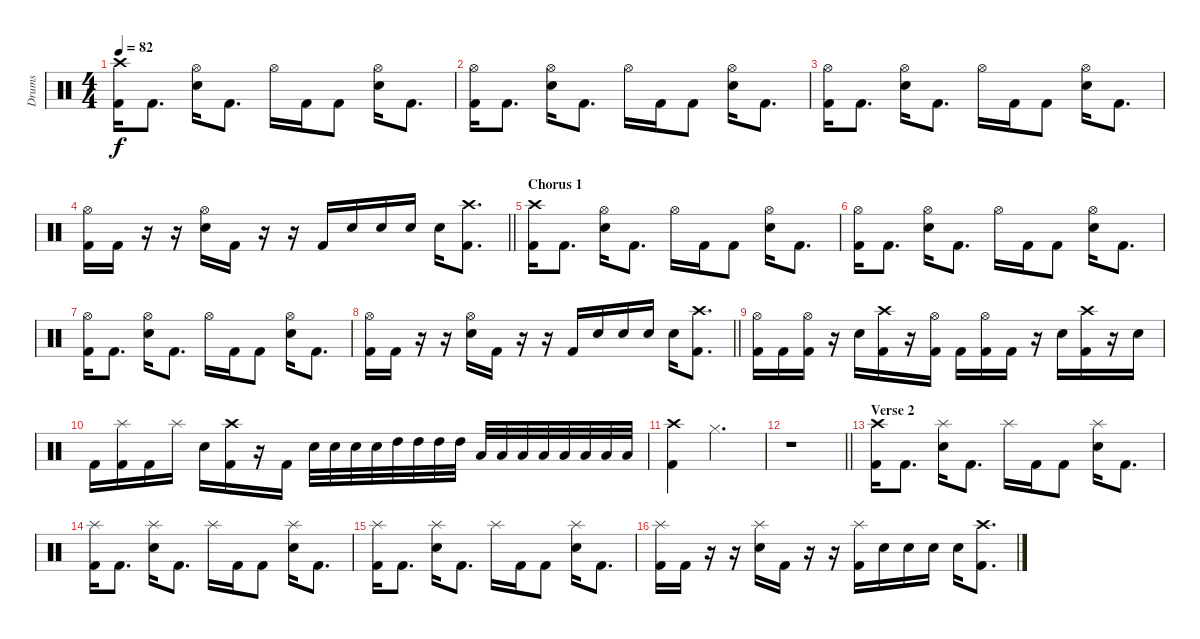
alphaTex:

\track ("Drums" "Drums") {instrument percussion}
\staff {score}
\articulation defaults
\ts (4 4)
\tempo 82
\clef neutral
\ks c
("Crash high (hit)" "Kick (hit) 2").16{dy f} "Kick (hit) 2".8{d} ("Hi-Hat (open)" "Electric Snare (hit)").16 "Kick (hit) 2".8{d} "Hi-Hat (open)".16 "Kick (hit) 2".16 "Kick (hit) 2".8 ("Hi-Hat (open)" "Electric Snare (hit)").16 "Kick (hit) 2".8{d} |
("Hi-Hat (open)" "Kick (hit) 2").16 "Kick (hit) 2".8{d} ("Hi-Hat (open)" "Electric Snare (hit)").16 "Kick (hit) 2".8{d} "Hi-Hat (open)".16 "Kick (hit) 2".16 "Kick (hit) 2".8 ("Hi-Hat (open)" "Electric Snare (hit)").16 "Kick (hit) 2".8{d} |
("Hi-Hat (open)" "Kick (hit) 2").16 "Kick (hit) 2".8{d} ("Hi-Hat (open)" "Electric Snare (hit)").16 "Kick (hit) 2".8{d} "Hi-Hat (open)".16 "Kick (hit) 2".16 "Kick (hit) 2".8 ("Hi-Hat (open)" "Electric Snare (hit)").16 "Kick (hit) 2".8{d} |
\barLineRight lightlight
("Hi-Hat (open)" "Kick (hit) 2").16 "Kick (hit) 2".16 r.16 r.16 ("Hi-Hat (open)" "Electric Snare (hit)").16 "Kick (hit) 2".16 r.16 r.16 "Kick (hit) 2".16 "Electric Snare (hit)".16 "Electric Snare (hit)".16 "Electric Snare (hit)".16 "Electric Snare (hit)".16 ("Crash high (hit)" "Kick (hit) 2").8{d} |
\section ("" "Chorus 1")
("Crash high (hit)" "Kick (hit) 2").16 "Kick (hit) 2".8{d} ("Hi-Hat (open)" "Electric Snare (hit)").16 "Kick (hit) 2".8{d} "Hi-Hat (open)".16 "Kick (hit) 2".16 "Kick (hit) 2".8 ("Hi-Hat (open)" "Electric Snare (hit)").16 "Kick (hit) 2".8{d} |
("Hi-Hat (open)" "Kick (hit) 2").16 "Kick (hit) 2".8{d} ("Hi-Hat (open)" "Electric Snare (hit)").16 "Kick (hit) 2".8{d} "Hi-Hat (open)".16 "Kick (hit) 2".16 "Kick (hit) 2".8 ("Hi-Hat (open)" "Electric Snare (hit)").16 "Kick (hit) 2".8{d} |
("Hi-Hat (open)" "Kick (hit) 2").16 "Kick (hit) 2".8{d} ("Hi-Hat (open)" "Electric Snare (hit)").16 "Kick (hit) 2".8{d} "Hi-Hat (open)".16 "Kick (hit) 2".16 "Kick (hit) 2".8 ("Hi-Hat (open)" "Electric Snare (hit)").16 "Kick (hit) 2".8{d} |
\barLineRight lightlight
("Hi-Hat (open)" "Kick (hit) 2").16 "Kick (hit) 2".16 r.16 r.16 ("Hi-Hat (open)" "Electric Snare (hit)").16 "Kick (hit) 2".16 r.16 r.16 "Kick (hit) 2".16 "Electric Snare (hit)".16 "Electric Snare (hit)".16 "Electric Snare (hit)".16 "Electric Snare (hit)".16 ("Crash high (hit)" "Kick (hit) 2").8{d} |
("Hi-Hat (open)" "Kick (hit) 2").16 "Kick (hit) 2".16 ("Hi-Hat (open)" "Kick (hit) 2").16 r.16 "Electric Snare (hit)".16 ("Crash high (hit)" "Kick (hit) 2").16 r.16 ("Hi-Hat (open)" "Kick (hit) 2").16 "Kick (hit) 2".16 ("Hi-Hat (open)" "Kick (hit) 2").16 "Kick (hit) 2".16 r.16 "Electric Snare (hit)".16 ("Crash high (hit)" "Kick (hit) 2").16 r.16 "Electric Snare (hit)".16 |
"Kick (hit) 2".16 ("Splash (hit)" "Kick (hit) 2").16 "Kick (hit) 2".16 "Splash (hit)".16 "Electric Snare (hit)".16 ("Crash high (hit)" "Kick (hit) 2").16 r.16 "Kick (hit) 2".16 "Electric Snare (hit)".32 "Electric Snare (hit)".32 "Electric Snare (hit)".32 "Electric Snare (hit)".32 "High Tom (hit)".32 "High Tom (hit)".32 "High Tom (hit)".32 "High Tom (hit)".32 "Low Floor Tom (hit)".32 "Low Floor Tom (hit)".32 "Low Floor Tom (hit)".32 "Low Floor Tom (hit)".32 "Low Floor Tom (hit)".32 "Low Floor Tom (hit)".32 "Low Floor Tom (hit)".32 "Low Floor Tom (hit)".32 |
("Crash high (hit)" "Kick (hit) 2").4 "Hi-Hat (closed)".2{d} |
\barLineRight lightlight
r.1 |
\section ("" "Verse 2")
("Crash high (hit)" "Kick (hit) 2").16 "Kick (hit) 2".8{d} ("Splash (hit)" "Electric Snare (hit)").16 "Kick (hit) 2".8{d} "Splash (hit)".16 "Kick (hit) 2".16 "Kick (hit) 2".8 ("Splash (hit)" "Electric Snare (hit)").16 "Kick (hit) 2".8{d} |
("Splash (hit)" "Kick (hit) 2").16 "Kick (hit) 2".8{d} ("Splash (hit)" "Electric Snare (hit)").16 "Kick (hit) 2".8{d} "Splash (hit)".16 "Kick (hit) 2".16 "Kick (hit) 2".8 ("Splash (hit)" "Electric Snare (hit)").16 "Kick (hit) 2".8{d} |
("Splash (hit)" "Kick (hit) 2").16 "Kick (hit) 2".8{d} ("Splash (hit)" "Electric Snare (hit)").16 "Kick (hit) 2".8{d} "Splash (hit)".16 "Kick (hit) 2".16 "Kick (hit) 2".8 ("Splash (hit)" "Electric Snare (hit)").16 "Kick (hit) 2".8{d} |
("Splash (hit)" "Kick (hit) 2").16 "Kick (hit) 2".16 r.16 r.16 ("Splash (hit)" "Electric Snare (hit)").16 "Kick (hit) 2".16 r.16 r.16 ("Splash (hit)" "Kick (hit) 2").16 "Electric Snare (hit)".16 "Electric Snare (hit)".16 "Electric Snare (hit)".16 "Electric Snare (hit)".16 ("Crash high (hit)" "Kick (hit) 2").8{d}
